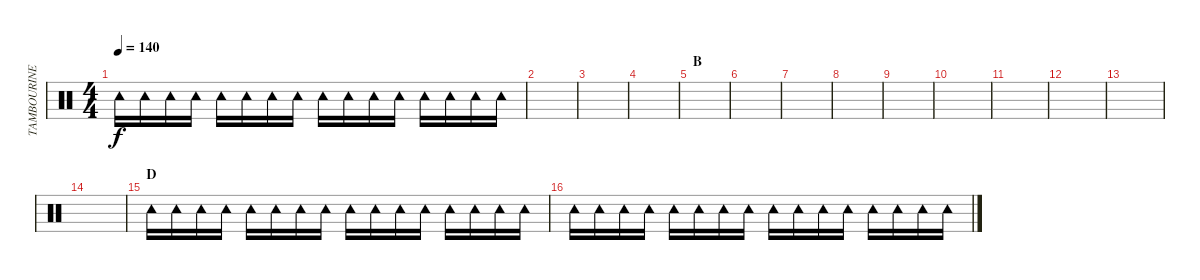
\track ("TAMBOURINE" "TAMBOURINE") {instrument percussion}
\staff {score}
\articulation defaults
\ts (4 4)
\tempo 140
\clef neutral
\ks c "Tambourine (hit)".16{dy f} "Tambourine (hit)".16 "Tambourine (hit)".16 "Tambourine (hit)".16 "Tambourine (hit)".16 "Tambourine (hit)".16 "Tambourine (hit)".16 "Tambourine (hit)".16 "Tambourine (hit)".16 "Tambourine (hit)".16 "Tambourine (hit)".16 "Tambourine (hit)".16 "Tambourine (hit)".16 "Tambourine (hit)".16 "Tambourine (hit)".16 "Tambourine (hit)".16
|
|
|
|
\section ("" "B")
|
|
|
|
|
|
|
|
|
|
\section ("" "D")
"Tambourine (hit)".16 "Tambourine (hit)".16 "Tambourine (hit)".16 "Tambourine (hit)".16 "Tambourine (hit)".16 "Tambourine (hit)".16 "Tambourine (hit)".16 "Tambourine (hit)".16 "Tambourine (hit)".16 "Tambourine (hit)".16 "Tambourine (hit)".16 "Tambourine (hit)".16 "Tambourine (hit)".16 "Tambourine (hit)".16 "Tambourine (hit)".16 "Tambourine (hit)".16 |
"Tambourine (hit)".16 "Tambourine (hit)".16 "Tambourine (hit)".16 "Tambourine (hit)".16 "Tambourine (hit)".16 "Tambourine (hit)".16 "Tambourine (hit)".16 "Tambourine (hit)".16 "Tambourine (hit)".16 "Tambourine (hit)".16 "Tambourine (hit)".16 "Tambourine (hit)".16 "Tambourine (hit)".16 "Tambourine (hit)".16 "Tambourine (hit)".16 "Tambourine (hit)".16
